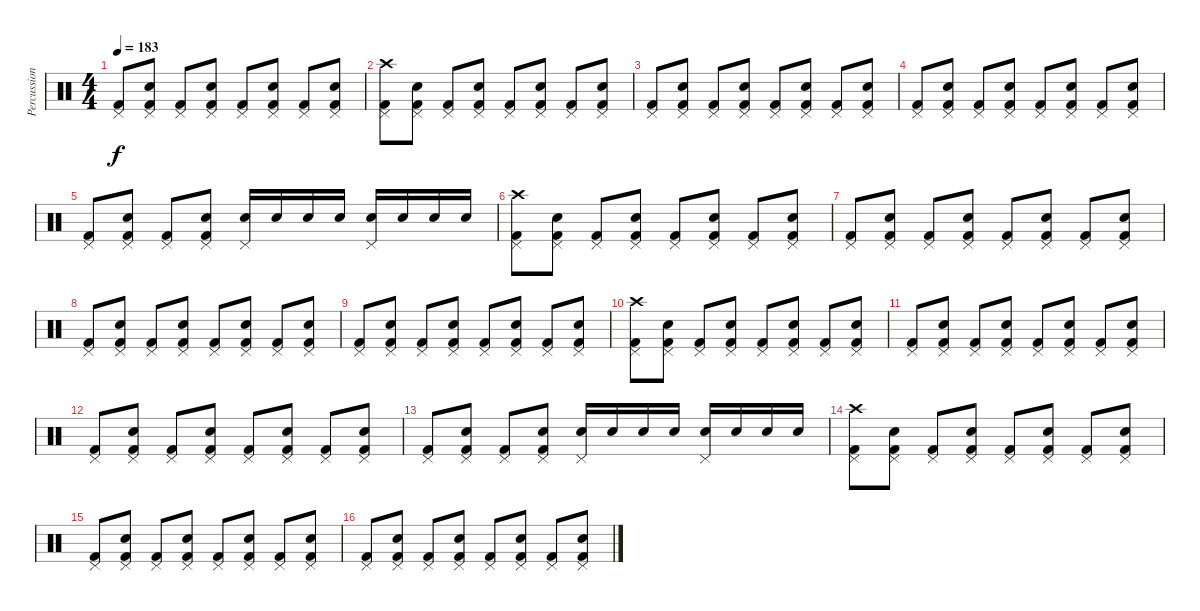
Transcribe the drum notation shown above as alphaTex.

\track ("Percussion" "Percussion") {instrument percussion}
\staff {score}
\articulation defaults
\ts (4 4)
\tempo 183
\clef neutral
\ks c
("Kick (hit) 2" "Pedal Hi-Hat (hit)").8{dy f} ("Kick (hit) 2" "Snare (hit) 2" "Pedal Hi-Hat (hit)").8 ("Kick (hit) 2" "Pedal Hi-Hat (hit)").8 ("Kick (hit) 2" "Snare (hit) 2" "Pedal Hi-Hat (hit)").8 ("Kick (hit) 2" "Pedal Hi-Hat (hit)").8 ("Kick (hit) 2" "Snare (hit) 2" "Pedal Hi-Hat (hit)").8 ("Kick (hit) 2" "Pedal Hi-Hat (hit)").8 ("Kick (hit) 2" "Snare (hit) 2" "Pedal Hi-Hat (hit)").8 |
("Kick (hit) 2" "Pedal Hi-Hat (hit)" "Crash high (hit)").8 ("Kick (hit) 2" "Snare (hit) 2" "Pedal Hi-Hat (hit)").8 ("Kick (hit) 2" "Pedal Hi-Hat (hit)").8 ("Kick (hit) 2" "Snare (hit) 2" "Pedal Hi-Hat (hit)").8 ("Kick (hit) 2" "Pedal Hi-Hat (hit)").8 ("Kick (hit) 2" "Snare (hit) 2" "Pedal Hi-Hat (hit)").8 ("Kick (hit) 2" "Pedal Hi-Hat (hit)").8 ("Kick (hit) 2" "Snare (hit) 2" "Pedal Hi-Hat (hit)").8 |
("Kick (hit) 2" "Pedal Hi-Hat (hit)").8 ("Kick (hit) 2" "Snare (hit) 2" "Pedal Hi-Hat (hit)").8 ("Kick (hit) 2" "Pedal Hi-Hat (hit)").8 ("Kick (hit) 2" "Snare (hit) 2" "Pedal Hi-Hat (hit)").8 ("Kick (hit) 2" "Pedal Hi-Hat (hit)").8 ("Kick (hit) 2" "Snare (hit) 2" "Pedal Hi-Hat (hit)").8 ("Kick (hit) 2" "Pedal Hi-Hat (hit)").8 ("Kick (hit) 2" "Snare (hit) 2" "Pedal Hi-Hat (hit)").8 |
("Kick (hit) 2" "Pedal Hi-Hat (hit)").8 ("Kick (hit) 2" "Snare (hit) 2" "Pedal Hi-Hat (hit)").8 ("Kick (hit) 2" "Pedal Hi-Hat (hit)").8 ("Kick (hit) 2" "Snare (hit) 2" "Pedal Hi-Hat (hit)").8 ("Kick (hit) 2" "Pedal Hi-Hat (hit)").8 ("Kick (hit) 2" "Snare (hit) 2" "Pedal Hi-Hat (hit)").8 ("Kick (hit) 2" "Pedal Hi-Hat (hit)").8 ("Kick (hit) 2" "Snare (hit) 2" "Pedal Hi-Hat (hit)").8 |
("Kick (hit) 2" "Pedal Hi-Hat (hit)").8 ("Kick (hit) 2" "Snare (hit) 2" "Pedal Hi-Hat (hit)").8 ("Kick (hit) 2" "Pedal Hi-Hat (hit)").8 ("Kick (hit) 2" "Snare (hit) 2" "Pedal Hi-Hat (hit)").8 ("Pedal Hi-Hat (hit)" "Snare (hit) 2").16 "Snare (hit) 2".16 "Snare (hit) 2".16 "Snare (hit) 2".16 ("Pedal Hi-Hat (hit)" "Snare (hit) 2").16 "Snare (hit) 2".16 "Snare (hit) 2".16 "Snare (hit) 2".16 |
("Kick (hit) 2" "Pedal Hi-Hat (hit)" "Crash high (hit)").8 ("Kick (hit) 2" "Snare (hit) 2" "Pedal Hi-Hat (hit)").8 ("Kick (hit) 2" "Pedal Hi-Hat (hit)").8 ("Kick (hit) 2" "Snare (hit) 2" "Pedal Hi-Hat (hit)").8 ("Kick (hit) 2" "Pedal Hi-Hat (hit)").8 ("Kick (hit) 2" "Snare (hit) 2" "Pedal Hi-Hat (hit)").8 ("Kick (hit) 2" "Pedal Hi-Hat (hit)").8 ("Kick (hit) 2" "Snare (hit) 2" "Pedal Hi-Hat (hit)").8 |
("Kick (hit) 2" "Pedal Hi-Hat (hit)").8 ("Kick (hit) 2" "Snare (hit) 2" "Pedal Hi-Hat (hit)").8 ("Kick (hit) 2" "Pedal Hi-Hat (hit)").8 ("Kick (hit) 2" "Snare (hit) 2" "Pedal Hi-Hat (hit)").8 ("Kick (hit) 2" "Pedal Hi-Hat (hit)").8 ("Kick (hit) 2" "Snare (hit) 2" "Pedal Hi-Hat (hit)").8 ("Kick (hit) 2" "Pedal Hi-Hat (hit)").8 ("Kick (hit) 2" "Snare (hit) 2" "Pedal Hi-Hat (hit)").8 |
("Kick (hit) 2" "Pedal Hi-Hat (hit)").8 ("Kick (hit) 2" "Snare (hit) 2" "Pedal Hi-Hat (hit)").8 ("Kick (hit) 2" "Pedal Hi-Hat (hit)").8 ("Kick (hit) 2" "Snare (hit) 2" "Pedal Hi-Hat (hit)").8 ("Kick (hit) 2" "Pedal Hi-Hat (hit)").8 ("Kick (hit) 2" "Snare (hit) 2" "Pedal Hi-Hat (hit)").8 ("Kick (hit) 2" "Pedal Hi-Hat (hit)").8 ("Kick (hit) 2" "Snare (hit) 2" "Pedal Hi-Hat (hit)").8 |
("Kick (hit) 2" "Pedal Hi-Hat (hit)").8 ("Kick (hit) 2" "Snare (hit) 2" "Pedal Hi-Hat (hit)").8 ("Kick (hit) 2" "Pedal Hi-Hat (hit)").8 ("Kick (hit) 2" "Snare (hit) 2" "Pedal Hi-Hat (hit)").8 ("Kick (hit) 2" "Pedal Hi-Hat (hit)").8 ("Kick (hit) 2" "Snare (hit) 2" "Pedal Hi-Hat (hit)").8 ("Kick (hit) 2" "Pedal Hi-Hat (hit)").8 ("Kick (hit) 2" "Snare (hit) 2" "Pedal Hi-Hat (hit)").8 |
("Kick (hit) 2" "Pedal Hi-Hat (hit)" "Crash high (hit)").8 ("Kick (hit) 2" "Snare (hit) 2" "Pedal Hi-Hat (hit)").8 ("Kick (hit) 2" "Pedal Hi-Hat (hit)").8 ("Kick (hit) 2" "Snare (hit) 2" "Pedal Hi-Hat (hit)").8 ("Kick (hit) 2" "Pedal Hi-Hat (hit)").8 ("Kick (hit) 2" "Snare (hit) 2" "Pedal Hi-Hat (hit)").8 ("Kick (hit) 2" "Pedal Hi-Hat (hit)").8 ("Kick (hit) 2" "Snare (hit) 2" "Pedal Hi-Hat (hit)").8 |
("Kick (hit) 2" "Pedal Hi-Hat (hit)").8 ("Kick (hit) 2" "Snare (hit) 2" "Pedal Hi-Hat (hit)").8 ("Kick (hit) 2" "Pedal Hi-Hat (hit)").8 ("Kick (hit) 2" "Snare (hit) 2" "Pedal Hi-Hat (hit)").8 ("Kick (hit) 2" "Pedal Hi-Hat (hit)").8 ("Kick (hit) 2" "Snare (hit) 2" "Pedal Hi-Hat (hit)").8 ("Kick (hit) 2" "Pedal Hi-Hat (hit)").8 ("Kick (hit) 2" "Snare (hit) 2" "Pedal Hi-Hat (hit)").8 |
("Kick (hit) 2" "Pedal Hi-Hat (hit)").8 ("Kick (hit) 2" "Snare (hit) 2" "Pedal Hi-Hat (hit)").8 ("Kick (hit) 2" "Pedal Hi-Hat (hit)").8 ("Kick (hit) 2" "Snare (hit) 2" "Pedal Hi-Hat (hit)").8 ("Kick (hit) 2" "Pedal Hi-Hat (hit)").8 ("Kick (hit) 2" "Snare (hit) 2" "Pedal Hi-Hat (hit)").8 ("Kick (hit) 2" "Pedal Hi-Hat (hit)").8 ("Kick (hit) 2" "Snare (hit) 2" "Pedal Hi-Hat (hit)").8 |
("Kick (hit) 2" "Pedal Hi-Hat (hit)").8 ("Kick (hit) 2" "Snare (hit) 2" "Pedal Hi-Hat (hit)").8 ("Kick (hit) 2" "Pedal Hi-Hat (hit)").8 ("Kick (hit) 2" "Snare (hit) 2" "Pedal Hi-Hat (hit)").8 ("Pedal Hi-Hat (hit)" "Snare (hit) 2").16 "Snare (hit) 2".16 "Snare (hit) 2".16 "Snare (hit) 2".16 ("Pedal Hi-Hat (hit)" "Snare (hit) 2").16 "Snare (hit) 2".16 "Snare (hit) 2".16 "Snare (hit) 2".16 |
("Kick (hit) 2" "Pedal Hi-Hat (hit)" "Crash high (hit)").8 ("Kick (hit) 2" "Snare (hit) 2" "Pedal Hi-Hat (hit)").8 ("Kick (hit) 2" "Pedal Hi-Hat (hit)").8 ("Kick (hit) 2" "Snare (hit) 2" "Pedal Hi-Hat (hit)").8 ("Kick (hit) 2" "Pedal Hi-Hat (hit)").8 ("Kick (hit) 2" "Snare (hit) 2" "Pedal Hi-Hat (hit)").8 ("Kick (hit) 2" "Pedal Hi-Hat (hit)").8 ("Kick (hit) 2" "Snare (hit) 2" "Pedal Hi-Hat (hit)").8 |
("Kick (hit) 2" "Pedal Hi-Hat (hit)").8 ("Kick (hit) 2" "Snare (hit) 2" "Pedal Hi-Hat (hit)").8 ("Kick (hit) 2" "Pedal Hi-Hat (hit)").8 ("Kick (hit) 2" "Snare (hit) 2" "Pedal Hi-Hat (hit)").8 ("Kick (hit) 2" "Pedal Hi-Hat (hit)").8 ("Kick (hit) 2" "Snare (hit) 2" "Pedal Hi-Hat (hit)").8 ("Kick (hit) 2" "Pedal Hi-Hat (hit)").8 ("Kick (hit) 2" "Snare (hit) 2" "Pedal Hi-Hat (hit)").8 |
("Kick (hit) 2" "Pedal Hi-Hat (hit)").8 ("Kick (hit) 2" "Snare (hit) 2" "Pedal Hi-Hat (hit)").8 ("Kick (hit) 2" "Pedal Hi-Hat (hit)").8 ("Kick (hit) 2" "Snare (hit) 2" "Pedal Hi-Hat (hit)").8 ("Kick (hit) 2" "Pedal Hi-Hat (hit)").8 ("Kick (hit) 2" "Snare (hit) 2" "Pedal Hi-Hat (hit)").8 ("Kick (hit) 2" "Pedal Hi-Hat (hit)").8 ("Kick (hit) 2" "Snare (hit) 2" "Pedal Hi-Hat (hit)").8
